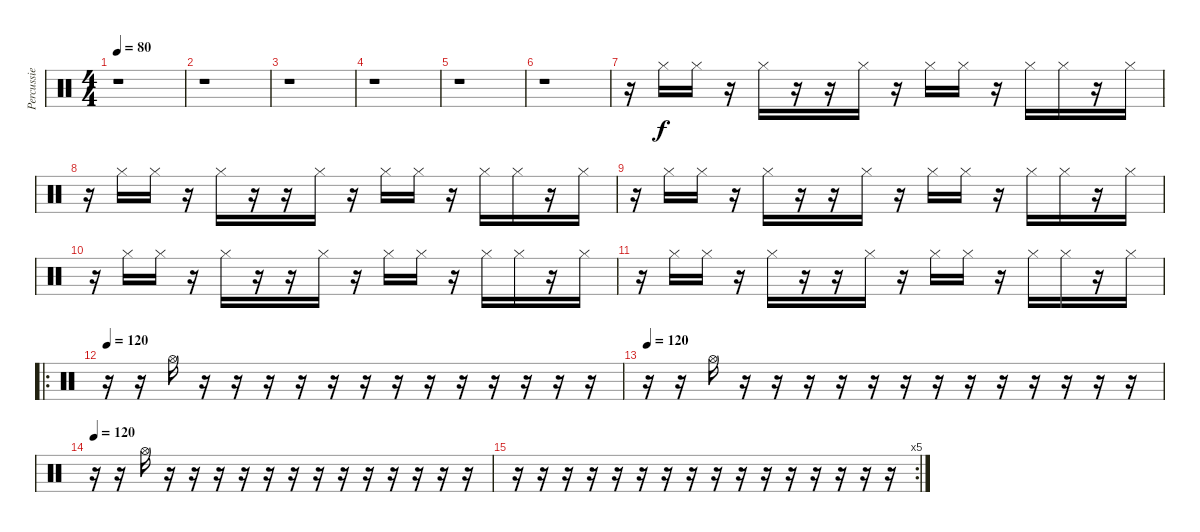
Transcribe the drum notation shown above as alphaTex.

\track ("Percussie" "Percussie") {instrument percussion}
\staff {score}
\articulation defaults
\ts (4 4)
\tempo 80
\clef neutral
\ks c
r.1{dy f} |
r.1 |
r.1 |
r.1 |
r.1 |
r.1 |
r.16 "Hi-Hat (closed)".16 "Hi-Hat (closed)".16 r.16 "Hi-Hat (closed)".16 r.16 r.16 "Hi-Hat (closed)".16 r.16 "Hi-Hat (closed)".16 "Hi-Hat (closed)".16 r.16 "Hi-Hat (closed)".16 "Hi-Hat (closed)".16 r.16 "Hi-Hat (closed)".16 |
r.16 "Hi-Hat (closed)".16 "Hi-Hat (closed)".16 r.16 "Hi-Hat (closed)".16 r.16 r.16 "Hi-Hat (closed)".16 r.16 "Hi-Hat (closed)".16 "Hi-Hat (closed)".16 r.16 "Hi-Hat (closed)".16 "Hi-Hat (closed)".16 r.16 "Hi-Hat (closed)".16 |
r.16 "Hi-Hat (closed)".16 "Hi-Hat (closed)".16 r.16 "Hi-Hat (closed)".16 r.16 r.16 "Hi-Hat (closed)".16 r.16 "Hi-Hat (closed)".16 "Hi-Hat (closed)".16 r.16 "Hi-Hat (closed)".16 "Hi-Hat (closed)".16 r.16 "Hi-Hat (closed)".16 |
r.16 "Hi-Hat (closed)".16 "Hi-Hat (closed)".16 r.16 "Hi-Hat (closed)".16 r.16 r.16 "Hi-Hat (closed)".16 r.16 "Hi-Hat (closed)".16 "Hi-Hat (closed)".16 r.16 "Hi-Hat (closed)".16 "Hi-Hat (closed)".16 r.16 "Hi-Hat (closed)".16 |
r.16 "Hi-Hat (closed)".16 "Hi-Hat (closed)".16 r.16 "Hi-Hat (closed)".16 r.16 r.16 "Hi-Hat (closed)".16 r.16 "Hi-Hat (closed)".16 "Hi-Hat (closed)".16 r.16 "Hi-Hat (closed)".16 "Hi-Hat (closed)".16 r.16 "Hi-Hat (closed)".16 |
\ro
\tempo 120
r.16 r.16 "Hi-Hat (open)".16 r.16 r.16 r.16 r.16 r.16 r.16 r.16 r.16 r.16 r.16 r.16 r.16 r.16 |
\tempo 120
r.16 r.16 "Hi-Hat (open)".16 r.16 r.16 r.16 r.16 r.16 r.16 r.16 r.16 r.16 r.16 r.16 r.16 r.16 |
\tempo 120
r.16 r.16 "Hi-Hat (open)".16 r.16 r.16 r.16 r.16 r.16 r.16 r.16 r.16 r.16 r.16 r.16 r.16 r.16 |
\rc 5
r.16 r.16 r.16 r.16 r.16 r.16 r.16 r.16 r.16 r.16 r.16 r.16 r.16 r.16 r.16 r.16
